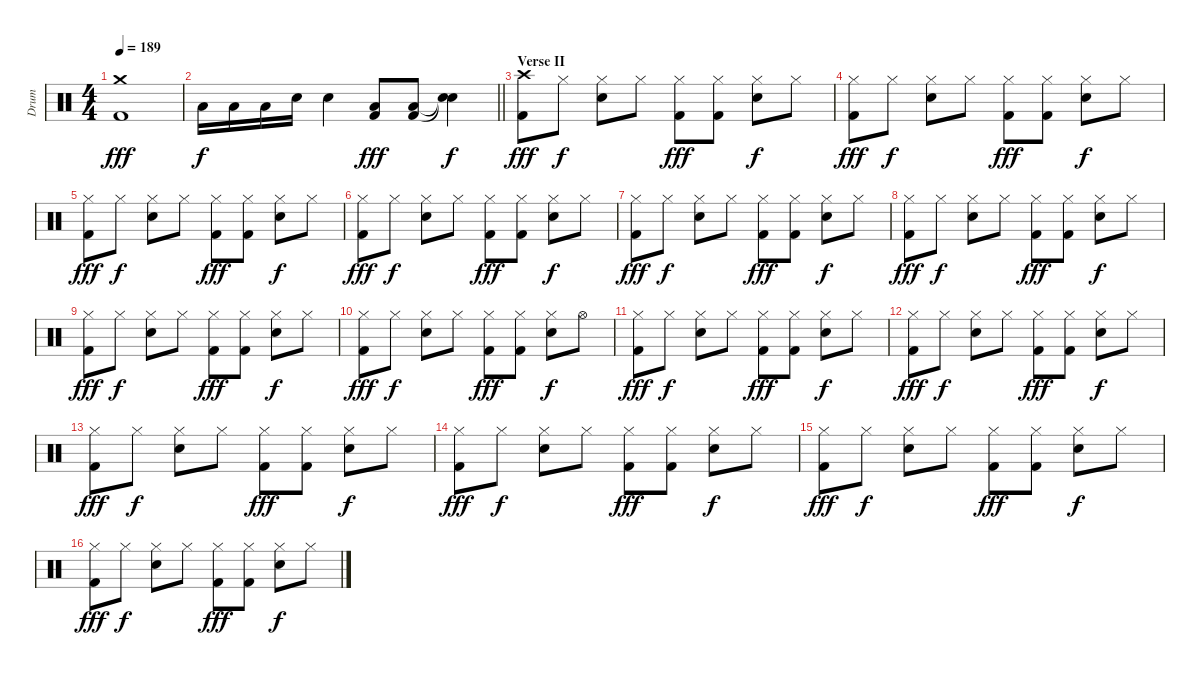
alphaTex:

\track ("Drum" "Drum") {instrument percussion}
\staff {score}
\articulation defaults
\ts (4 4)
\tempo 189
\clef neutral
\ks c
("Crash medium (hit)" "Kick (hit) 2").1{dy fff} |
\barLineRight lightlight "Low Tom (hit)".16{dy f} "Low Tom (hit)".16 "Low Tom (hit)".16 "Electric Snare (hit)".16 "Electric Snare (hit)".4
("Low Tom (hit)" "Kick (hit) 2").8{dy fff} ("Low Tom (hit)" "Kick (hit) 2").8 ("Snare (hit)"{t} "Snare (hit)"{t}).4{dy f} |
\section ("" "Verse II")
("Crash high (hit)" "Kick (hit) 2").8{dy fff} "Hi-Hat (closed)".8{dy f} ("Hi-Hat (closed)" "Electric Snare (hit)").8 "Hi-Hat (closed)".8 ("Hi-Hat (closed)" "Kick (hit) 2").8{dy fff} ("Hi-Hat (closed)" "Kick (hit) 2").8 ("Hi-Hat (closed)" "Electric Snare (hit)").8{dy f} "Hi-Hat (closed)".8 |
("Hi-Hat (closed)" "Kick (hit) 2").8{dy fff} "Hi-Hat (closed)".8{dy f} ("Hi-Hat (closed)" "Electric Snare (hit)").8 "Hi-Hat (closed)".8 ("Hi-Hat (closed)" "Kick (hit) 2").8{dy fff} ("Hi-Hat (closed)" "Kick (hit) 2").8 ("Hi-Hat (closed)" "Electric Snare (hit)").8{dy f} "Hi-Hat (closed)".8 |
("Hi-Hat (closed)" "Kick (hit) 2").8{dy fff} "Hi-Hat (closed)".8{dy f} ("Hi-Hat (closed)" "Electric Snare (hit)").8 "Hi-Hat (closed)".8 ("Hi-Hat (closed)" "Kick (hit) 2").8{dy fff} ("Hi-Hat (closed)" "Kick (hit) 2").8 ("Hi-Hat (closed)" "Electric Snare (hit)").8{dy f} "Hi-Hat (closed)".8 |
("Hi-Hat (closed)" "Kick (hit) 2").8{dy fff} "Hi-Hat (closed)".8{dy f} ("Hi-Hat (closed)" "Electric Snare (hit)").8 "Hi-Hat (closed)".8 ("Hi-Hat (closed)" "Kick (hit) 2").8{dy fff} ("Hi-Hat (closed)" "Kick (hit) 2").8 ("Hi-Hat (closed)" "Electric Snare (hit)").8{dy f} "Hi-Hat (closed)".8 |
("Hi-Hat (closed)" "Kick (hit) 2").8{dy fff} "Hi-Hat (closed)".8{dy f} ("Hi-Hat (closed)" "Electric Snare (hit)").8 "Hi-Hat (closed)".8 ("Hi-Hat (closed)" "Kick (hit) 2").8{dy fff} ("Hi-Hat (closed)" "Kick (hit) 2").8 ("Hi-Hat (closed)" "Electric Snare (hit)").8{dy f} "Hi-Hat (closed)".8 |
("Hi-Hat (closed)" "Kick (hit) 2").8{dy fff} "Hi-Hat (closed)".8{dy f} ("Hi-Hat (closed)" "Electric Snare (hit)").8 "Hi-Hat (closed)".8 ("Hi-Hat (closed)" "Kick (hit) 2").8{dy fff} ("Hi-Hat (closed)" "Kick (hit) 2").8 ("Hi-Hat (closed)" "Electric Snare (hit)").8{dy f} "Hi-Hat (closed)".8 |
("Hi-Hat (closed)" "Kick (hit) 2").8{dy fff} "Hi-Hat (closed)".8{dy f} ("Hi-Hat (closed)" "Electric Snare (hit)").8 "Hi-Hat (closed)".8 ("Hi-Hat (closed)" "Kick (hit) 2").8{dy fff} ("Hi-Hat (closed)" "Kick (hit) 2").8 ("Hi-Hat (closed)" "Electric Snare (hit)").8{dy f} "Hi-Hat (closed)".8 |
("Hi-Hat (closed)" "Kick (hit) 2").8{dy fff} "Hi-Hat (closed)".8{dy f} ("Hi-Hat (closed)" "Electric Snare (hit)").8 "Hi-Hat (closed)".8 ("Hi-Hat (closed)" "Kick (hit) 2").8{dy fff} ("Hi-Hat (closed)" "Kick (hit) 2").8 ("Hi-Hat (closed)" "Electric Snare (hit)").8{dy f} "Hi-Hat (open)".8 |
("Hi-Hat (closed)" "Kick (hit) 2").8{dy fff} "Hi-Hat (closed)".8{dy f} ("Hi-Hat (closed)" "Electric Snare (hit)").8 "Hi-Hat (closed)".8 ("Hi-Hat (closed)" "Kick (hit) 2").8{dy fff} ("Hi-Hat (closed)" "Kick (hit) 2").8 ("Hi-Hat (closed)" "Electric Snare (hit)").8{dy f} "Hi-Hat (closed)".8 |
("Hi-Hat (closed)" "Kick (hit) 2").8{dy fff} "Hi-Hat (closed)".8{dy f} ("Hi-Hat (closed)" "Electric Snare (hit)").8 "Hi-Hat (closed)".8 ("Hi-Hat (closed)" "Kick (hit) 2").8{dy fff} ("Hi-Hat (closed)" "Kick (hit) 2").8 ("Hi-Hat (closed)" "Electric Snare (hit)").8{dy f} "Hi-Hat (closed)".8 |
("Hi-Hat (closed)" "Kick (hit) 2").8{dy fff} "Hi-Hat (closed)".8{dy f} ("Hi-Hat (closed)" "Electric Snare (hit)").8 "Hi-Hat (closed)".8 ("Hi-Hat (closed)" "Kick (hit) 2").8{dy fff} ("Hi-Hat (closed)" "Kick (hit) 2").8 ("Hi-Hat (closed)" "Electric Snare (hit)").8{dy f} "Hi-Hat (closed)".8 |
("Hi-Hat (closed)" "Kick (hit) 2").8{dy fff} "Hi-Hat (closed)".8{dy f} ("Hi-Hat (closed)" "Electric Snare (hit)").8 "Hi-Hat (closed)".8 ("Hi-Hat (closed)" "Kick (hit) 2").8{dy fff} ("Hi-Hat (closed)" "Kick (hit) 2").8 ("Hi-Hat (closed)" "Electric Snare (hit)").8{dy f} "Hi-Hat (closed)".8 |
("Hi-Hat (closed)" "Kick (hit) 2").8{dy fff} "Hi-Hat (closed)".8{dy f} ("Hi-Hat (closed)" "Electric Snare (hit)").8 "Hi-Hat (closed)".8 ("Hi-Hat (closed)" "Kick (hit) 2").8{dy fff} ("Hi-Hat (closed)" "Kick (hit) 2").8 ("Hi-Hat (closed)" "Electric Snare (hit)").8{dy f} "Hi-Hat (closed)".8 |
("Hi-Hat (closed)" "Kick (hit) 2").8{dy fff} "Hi-Hat (closed)".8{dy f} ("Hi-Hat (closed)" "Electric Snare (hit)").8 "Hi-Hat (closed)".8 ("Hi-Hat (closed)" "Kick (hit) 2").8{dy fff} ("Hi-Hat (closed)" "Kick (hit) 2").8 ("Hi-Hat (closed)" "Electric Snare (hit)").8{dy f} "Hi-Hat (closed)".8
